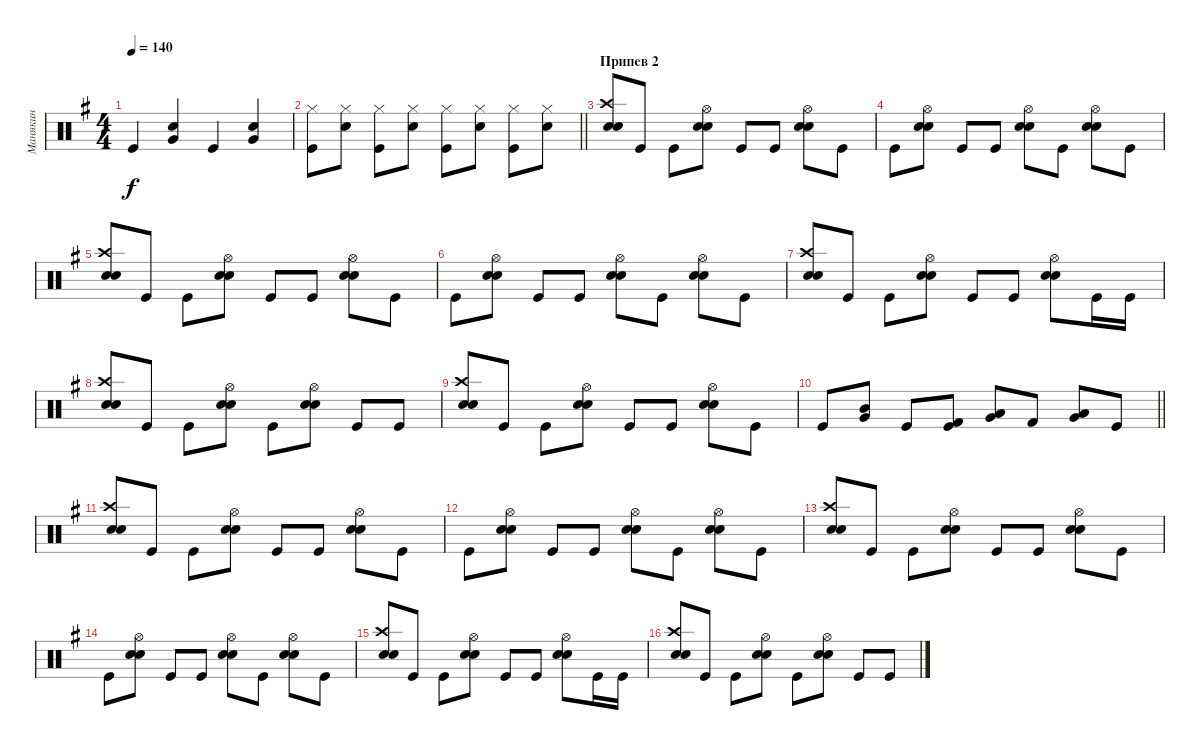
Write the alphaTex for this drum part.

\track ("Манякин" "Манякин") {instrument percussion}
\staff {score}
\articulation defaults
\ts (4 4)
\tempo 140
\clef neutral
\ks g "Kick (hit)".4{dy f}
("Snare (hit) 2" "Very Low Tom (hit)").4 "Kick (hit)".4 ("Snare (hit) 2" "Very Low Tom (hit)").4 |
\barLineRight lightlight
("Hi-Hat (closed)" "Kick (hit)").8 ("Hi-Hat (closed)" "Snare (hit) 2").8 ("Hi-Hat (closed)" "Kick (hit)").8 ("Hi-Hat (closed)" "Snare (hit) 2").8 ("Hi-Hat (closed)" "Kick (hit)").8 ("Hi-Hat (closed)" "Snare (hit) 2").8 ("Hi-Hat (closed)" "Kick (hit)").8 ("Hi-Hat (closed)" "Snare (hit) 2").8 |
\section ("" "Припев 2")
("Crash high (hit)" "Electric Snare (hit)" "Snare (hit) 2").8 "Kick (hit)".8 "Kick (hit)".8 ("Hi-Hat (open)" "Electric Snare (hit)" "Snare (hit) 2").8 "Kick (hit)".8 "Kick (hit)".8 ("Hi-Hat (open)" "Electric Snare (hit)" "Snare (hit) 2").8 "Kick (hit)".8 |
"Kick (hit)".8 ("Hi-Hat (open)" "Electric Snare (hit)" "Snare (hit) 2").8 "Kick (hit)".8 "Kick (hit)".8 ("Hi-Hat (open)" "Electric Snare (hit)" "Snare (hit) 2").8 "Kick (hit)".8 ("Hi-Hat (open)" "Electric Snare (hit)" "Snare (hit) 2").8 "Kick (hit)".8 |
("Crash high (hit)" "Electric Snare (hit)" "Snare (hit) 2").8 "Kick (hit)".8 "Kick (hit)".8 ("Hi-Hat (open)" "Electric Snare (hit)" "Snare (hit) 2").8 "Kick (hit)".8 "Kick (hit)".8 ("Hi-Hat (open)" "Electric Snare (hit)" "Snare (hit) 2").8 "Kick (hit)".8 |
"Kick (hit)".8 ("Hi-Hat (open)" "Electric Snare (hit)" "Snare (hit) 2").8 "Kick (hit)".8 "Kick (hit)".8 ("Hi-Hat (open)" "Electric Snare (hit)" "Snare (hit) 2").8 "Kick (hit)".8 ("Hi-Hat (open)" "Electric Snare (hit)" "Snare (hit) 2").8 "Kick (hit)".8 |
("Crash high (hit)" "Electric Snare (hit)" "Snare (hit) 2").8 "Kick (hit)".8 "Kick (hit)".8 ("Hi-Hat (open)" "Electric Snare (hit)" "Snare (hit) 2").8 "Kick (hit)".8 "Kick (hit)".8 ("Hi-Hat (open)" "Electric Snare (hit)" "Snare (hit) 2").8 "Kick (hit)".16 "Kick (hit)".16 |
("Crash high (hit)" "Electric Snare (hit)" "Snare (hit) 2").8 "Kick (hit)".8 "Kick (hit)".8 ("Hi-Hat (open)" "Electric Snare (hit)" "Snare (hit) 2").8 "Kick (hit)".8 ("Hi-Hat (open)" "Electric Snare (hit)" "Snare (hit) 2").8 "Kick (hit)".8 "Kick (hit)".8 |
("Crash high (hit)" "Electric Snare (hit)" "Snare (hit) 2").8 "Kick (hit)".8 "Kick (hit)".8 ("Hi-Hat (open)" "Electric Snare (hit)" "Snare (hit) 2").8 "Kick (hit)".8 "Kick (hit)".8 ("Hi-Hat (open)" "Electric Snare (hit)" "Snare (hit) 2").8 "Kick (hit)".8 |
\barLineRight lightlight "Kick (hit)".8
("Very Low Tom (hit)" "Mid Tom (hit)").8 "Kick (hit)".8 ("Kick (hit) 2" "Kick (hit)").8 ("Low Tom (hit)" "Very Low Tom (hit)").8 "Kick (hit) 2".8 ("Very Low Tom (hit)" "Low Floor Tom (hit)").8 "Kick (hit)".8 |
("Crash high (hit)" "Electric Snare (hit)" "Snare (hit) 2").8 "Kick (hit)".8 "Kick (hit)".8 ("Hi-Hat (open)" "Electric Snare (hit)" "Snare (hit) 2").8 "Kick (hit)".8 "Kick (hit)".8 ("Hi-Hat (open)" "Electric Snare (hit)" "Snare (hit) 2").8 "Kick (hit)".8 |
"Kick (hit)".8 ("Hi-Hat (open)" "Electric Snare (hit)" "Snare (hit) 2").8 "Kick (hit)".8 "Kick (hit)".8 ("Hi-Hat (open)" "Electric Snare (hit)" "Snare (hit) 2").8 "Kick (hit)".8 ("Hi-Hat (open)" "Electric Snare (hit)" "Snare (hit) 2").8 "Kick (hit)".8 |
("Crash high (hit)" "Electric Snare (hit)" "Snare (hit) 2").8 "Kick (hit)".8 "Kick (hit)".8 ("Hi-Hat (open)" "Electric Snare (hit)" "Snare (hit) 2").8 "Kick (hit)".8 "Kick (hit)".8 ("Hi-Hat (open)" "Electric Snare (hit)" "Snare (hit) 2").8 "Kick (hit)".8 |
"Kick (hit)".8 ("Hi-Hat (open)" "Electric Snare (hit)" "Snare (hit) 2").8 "Kick (hit)".8 "Kick (hit)".8 ("Hi-Hat (open)" "Electric Snare (hit)" "Snare (hit) 2").8 "Kick (hit)".8 ("Hi-Hat (open)" "Electric Snare (hit)" "Snare (hit) 2").8 "Kick (hit)".8 |
("Crash high (hit)" "Electric Snare (hit)" "Snare (hit) 2").8 "Kick (hit)".8 "Kick (hit)".8 ("Hi-Hat (open)" "Electric Snare (hit)" "Snare (hit) 2").8 "Kick (hit)".8 "Kick (hit)".8 ("Hi-Hat (open)" "Electric Snare (hit)" "Snare (hit) 2").8 "Kick (hit)".16 "Kick (hit)".16 |
("Crash high (hit)" "Electric Snare (hit)" "Snare (hit) 2").8 "Kick (hit)".8 "Kick (hit)".8 ("Hi-Hat (open)" "Electric Snare (hit)" "Snare (hit) 2").8 "Kick (hit)".8 ("Hi-Hat (open)" "Electric Snare (hit)" "Snare (hit) 2").8 "Kick (hit)".8 "Kick (hit)".8
